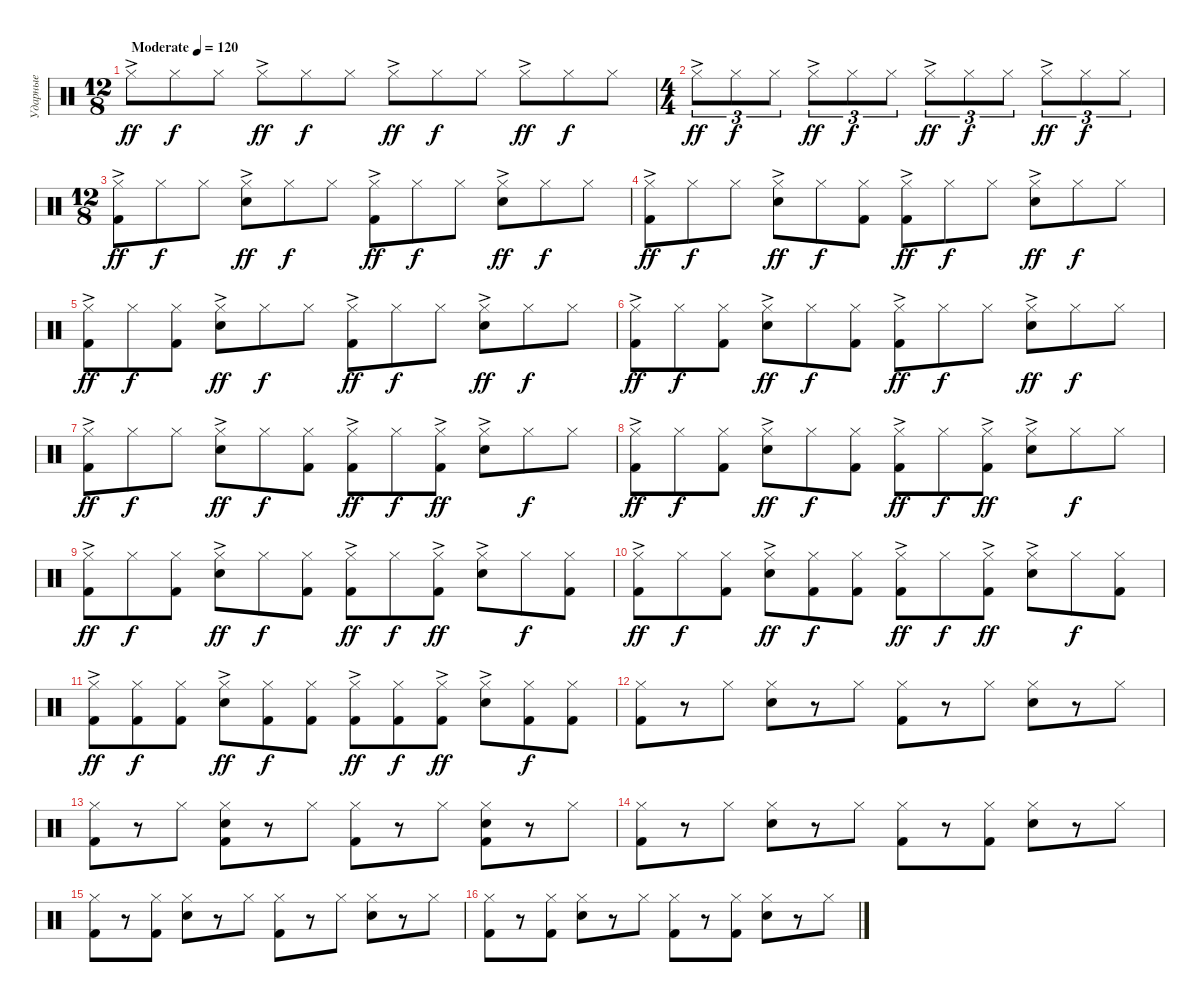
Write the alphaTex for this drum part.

\track ("Ударные" "Ударные") {instrument percussion}
\staff {score}
\articulation defaults
\ts (12 8)
\tempo (120 "Moderate")
\clef neutral
\ks c "Hi-Hat (closed)"{ac}.8{dy ff} "Hi-Hat (closed)".8{dy f} "Hi-Hat (closed)".8 "Hi-Hat (closed)"{ac}.8{dy ff} "Hi-Hat (closed)".8{dy f} "Hi-Hat (closed)".8 "Hi-Hat (closed)"{ac}.8{dy ff} "Hi-Hat (closed)".8{dy f} "Hi-Hat (closed)".8 "Hi-Hat (closed)"{ac}.8{dy ff} "Hi-Hat (closed)".8{dy f} "Hi-Hat (closed)".8
|
\ts (4 4)
"Hi-Hat (closed)"{ac}.8{tu (3 2) dy ff} "Hi-Hat (closed)".8{tu (3 2) dy f} "Hi-Hat (closed)".8{tu (3 2)} "Hi-Hat (closed)"{ac}.8{tu (3 2) dy ff} "Hi-Hat (closed)".8{tu (3 2) dy f} "Hi-Hat (closed)".8{tu (3 2)} "Hi-Hat (closed)"{ac}.8{tu (3 2) dy ff} "Hi-Hat (closed)".8{tu (3 2) dy f} "Hi-Hat (closed)".8{tu (3 2)} "Hi-Hat (closed)"{ac}.8{tu (3 2) dy ff} "Hi-Hat (closed)".8{tu (3 2) dy f} "Hi-Hat (closed)".8{tu (3 2)} |
\ts (12 8)
("Hi-Hat (closed)"{ac} "Kick (hit) 2").8{dy ff} "Hi-Hat (closed)".8{dy f} "Hi-Hat (closed)".8 ("Hi-Hat (closed)"{ac} "Electric Snare (hit)").8{dy ff} "Hi-Hat (closed)".8{dy f} "Hi-Hat (closed)".8 ("Hi-Hat (closed)"{ac} "Kick (hit) 2").8{dy ff} "Hi-Hat (closed)".8{dy f} "Hi-Hat (closed)".8 ("Hi-Hat (closed)"{ac} "Electric Snare (hit)").8{dy ff} "Hi-Hat (closed)".8{dy f} "Hi-Hat (closed)".8 |
("Hi-Hat (closed)"{ac} "Kick (hit) 2").8{dy ff} "Hi-Hat (closed)".8{dy f} "Hi-Hat (closed)".8 ("Hi-Hat (closed)"{ac} "Electric Snare (hit)").8{dy ff} "Hi-Hat (closed)".8{dy f} ("Hi-Hat (closed)" "Kick (hit) 2").8 ("Hi-Hat (closed)"{ac} "Kick (hit) 2").8{dy ff} "Hi-Hat (closed)".8{dy f} "Hi-Hat (closed)".8 ("Hi-Hat (closed)"{ac} "Electric Snare (hit)").8{dy ff} "Hi-Hat (closed)".8{dy f} "Hi-Hat (closed)".8 |
("Hi-Hat (closed)"{ac} "Kick (hit) 2").8{dy ff} "Hi-Hat (closed)".8{dy f} ("Hi-Hat (closed)" "Kick (hit) 2").8 ("Hi-Hat (closed)"{ac} "Electric Snare (hit)").8{dy ff} "Hi-Hat (closed)".8{dy f} "Hi-Hat (closed)".8 ("Hi-Hat (closed)"{ac} "Kick (hit) 2").8{dy ff} "Hi-Hat (closed)".8{dy f} "Hi-Hat (closed)".8 ("Hi-Hat (closed)"{ac} "Electric Snare (hit)").8{dy ff} "Hi-Hat (closed)".8{dy f} "Hi-Hat (closed)".8 |
("Hi-Hat (closed)"{ac} "Kick (hit) 2").8{dy ff} "Hi-Hat (closed)".8{dy f} ("Hi-Hat (closed)" "Kick (hit) 2").8 ("Hi-Hat (closed)"{ac} "Electric Snare (hit)").8{dy ff} "Hi-Hat (closed)".8{dy f} ("Hi-Hat (closed)" "Kick (hit) 2").8 ("Hi-Hat (closed)"{ac} "Kick (hit) 2").8{dy ff} "Hi-Hat (closed)".8{dy f} "Hi-Hat (closed)".8 ("Hi-Hat (closed)"{ac} "Electric Snare (hit)").8{dy ff} "Hi-Hat (closed)".8{dy f} "Hi-Hat (closed)".8 |
("Hi-Hat (closed)"{ac} "Kick (hit) 2").8{dy ff} "Hi-Hat (closed)".8{dy f} "Hi-Hat (closed)".8 ("Hi-Hat (closed)"{ac} "Electric Snare (hit)").8{dy ff} "Hi-Hat (closed)".8{dy f} ("Hi-Hat (closed)" "Kick (hit) 2").8 ("Hi-Hat (closed)"{ac} "Kick (hit) 2").8{dy ff} "Hi-Hat (closed)".8{dy f} ("Hi-Hat (closed)"{ac} "Kick (hit) 2").8{dy ff} ("Hi-Hat (closed)"{ac} "Electric Snare (hit)").8 "Hi-Hat (closed)".8{dy f} "Hi-Hat (closed)".8 |
("Hi-Hat (closed)"{ac} "Kick (hit) 2").8{dy ff} "Hi-Hat (closed)".8{dy f} ("Hi-Hat (closed)" "Kick (hit) 2").8 ("Hi-Hat (closed)"{ac} "Electric Snare (hit)").8{dy ff} "Hi-Hat (closed)".8{dy f} ("Hi-Hat (closed)" "Kick (hit) 2").8 ("Hi-Hat (closed)"{ac} "Kick (hit) 2").8{dy ff} "Hi-Hat (closed)".8{dy f} ("Hi-Hat (closed)"{ac} "Kick (hit) 2").8{dy ff} ("Hi-Hat (closed)"{ac} "Electric Snare (hit)").8 "Hi-Hat (closed)".8{dy f} "Hi-Hat (closed)".8 |
("Hi-Hat (closed)"{ac} "Kick (hit) 2").8{dy ff} "Hi-Hat (closed)".8{dy f} ("Hi-Hat (closed)" "Kick (hit) 2").8 ("Hi-Hat (closed)"{ac} "Electric Snare (hit)").8{dy ff} "Hi-Hat (closed)".8{dy f} ("Hi-Hat (closed)" "Kick (hit) 2").8 ("Hi-Hat (closed)"{ac} "Kick (hit) 2").8{dy ff} "Hi-Hat (closed)".8{dy f} ("Hi-Hat (closed)"{ac} "Kick (hit) 2").8{dy ff} ("Hi-Hat (closed)"{ac} "Electric Snare (hit)").8 "Hi-Hat (closed)".8{dy f} ("Hi-Hat (closed)" "Kick (hit) 2").8 |
("Hi-Hat (closed)"{ac} "Kick (hit) 2").8{dy ff} "Hi-Hat (closed)".8{dy f} ("Hi-Hat (closed)" "Kick (hit) 2").8 ("Hi-Hat (closed)"{ac} "Electric Snare (hit)").8{dy ff} ("Hi-Hat (closed)" "Kick (hit) 2").8{dy f} ("Hi-Hat (closed)" "Kick (hit) 2").8 ("Hi-Hat (closed)"{ac} "Kick (hit) 2").8{dy ff} "Hi-Hat (closed)".8{dy f} ("Hi-Hat (closed)"{ac} "Kick (hit) 2").8{dy ff} ("Hi-Hat (closed)"{ac} "Electric Snare (hit)").8 "Hi-Hat (closed)".8{dy f} ("Hi-Hat (closed)" "Kick (hit) 2").8 |
("Hi-Hat (closed)"{ac} "Kick (hit) 2").8{dy ff} ("Hi-Hat (closed)" "Kick (hit) 2").8{dy f} ("Hi-Hat (closed)" "Kick (hit) 2").8 ("Hi-Hat (closed)"{ac} "Electric Snare (hit)").8{dy ff} ("Hi-Hat (closed)" "Kick (hit) 2").8{dy f} ("Hi-Hat (closed)" "Kick (hit) 2").8 ("Hi-Hat (closed)"{ac} "Kick (hit) 2").8{dy ff} ("Hi-Hat (closed)" "Kick (hit) 2").8{dy f} ("Hi-Hat (closed)"{ac} "Kick (hit) 2").8{dy ff} ("Hi-Hat (closed)"{ac} "Electric Snare (hit)").8 ("Hi-Hat (closed)" "Kick (hit) 2").8{dy f} ("Hi-Hat (closed)" "Kick (hit) 2").8 |
("Hi-Hat (closed)" "Kick (hit) 2").8 r.8 "Hi-Hat (closed)".8 ("Hi-Hat (closed)" "Electric Snare (hit)").8 r.8 "Hi-Hat (closed)".8 ("Hi-Hat (closed)" "Kick (hit) 2").8 r.8 "Hi-Hat (closed)".8 ("Hi-Hat (closed)" "Electric Snare (hit)").8 r.8 "Hi-Hat (closed)".8 |
("Hi-Hat (closed)" "Kick (hit) 2").8 r.8 "Hi-Hat (closed)".8 ("Hi-Hat (closed)" "Electric Snare (hit)" "Kick (hit) 2").8 r.8 "Hi-Hat (closed)".8 ("Hi-Hat (closed)" "Kick (hit) 2").8 r.8 "Hi-Hat (closed)".8 ("Hi-Hat (closed)" "Electric Snare (hit)" "Kick (hit) 2").8 r.8 "Hi-Hat (closed)".8 |
("Hi-Hat (closed)" "Kick (hit) 2").8 r.8 "Hi-Hat (closed)".8 ("Hi-Hat (closed)" "Electric Snare (hit)").8 r.8 "Hi-Hat (closed)".8 ("Hi-Hat (closed)" "Kick (hit) 2").8 r.8 ("Hi-Hat (closed)" "Kick (hit) 2").8 ("Hi-Hat (closed)" "Electric Snare (hit)").8 r.8 "Hi-Hat (closed)".8 |
("Hi-Hat (closed)" "Kick (hit) 2").8 r.8 ("Hi-Hat (closed)" "Kick (hit) 2").8 ("Hi-Hat (closed)" "Electric Snare (hit)").8 r.8 "Hi-Hat (closed)".8 ("Hi-Hat (closed)" "Kick (hit) 2").8 r.8 "Hi-Hat (closed)".8 ("Hi-Hat (closed)" "Electric Snare (hit)").8 r.8 "Hi-Hat (closed)".8 |
("Hi-Hat (closed)" "Kick (hit) 2").8 r.8 ("Hi-Hat (closed)" "Kick (hit) 2").8 ("Hi-Hat (closed)" "Electric Snare (hit)").8 r.8 "Hi-Hat (closed)".8 ("Hi-Hat (closed)" "Kick (hit) 2").8 r.8 ("Hi-Hat (closed)" "Kick (hit) 2").8 ("Hi-Hat (closed)" "Electric Snare (hit)").8 r.8 "Hi-Hat (closed)".8
